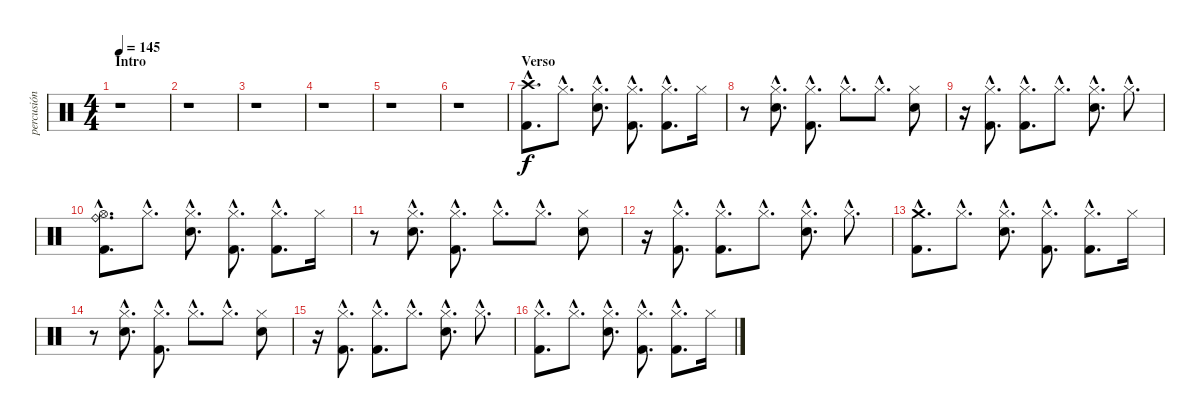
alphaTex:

\track ("percusión" "percusión") {instrument percussion}
\staff {score}
\articulation defaults
\ts (4 4)
\section ("" "Intro")
\tempo 145
\clef neutral
\ks c
r.1{dy f} |
r.1 |
r.1 |
r.1 |
r.1 |
r.1 |
\section ("" "Verso")
("Kick (hit) 2"{hac} "Crash high (hit)"{hac}).8{d} "Hi-Hat (closed)"{hac}.8{d} ("Hi-Hat (closed)"{hac} "Electric Snare (hit)"{hac}).8{d} ("Kick (hit) 2"{hac} "Hi-Hat (closed)"{hac}).8{d} ("Kick (hit) 2"{hac} "Hi-Hat (closed)"{hac}).8{d} "Hi-Hat (closed)".16 |
r.8 ("Hi-Hat (closed)"{hac} "Electric Snare (hit)"{hac}).8{d} ("Kick (hit) 2"{hac} "Hi-Hat (closed)"{hac}).8{d} "Hi-Hat (closed)"{hac}.8{d} "Hi-Hat (closed)"{hac}.8{d} ("Hi-Hat (closed)" "Electric Snare (hit)").8 |
r.16 ("Kick (hit) 2"{hac} "Hi-Hat (closed)"{hac}).8{d} ("Kick (hit) 2"{hac} "Hi-Hat (closed)"{hac}).8{d} "Hi-Hat (closed)"{hac}.8{d} ("Hi-Hat (closed)"{hac} "Electric Snare (hit)"{hac}).8{d} "Hi-Hat (closed)"{hac}.8{d} |
("Kick (hit) 2"{hac} "Hi-Hat (open)"{hac} "Ride (bell)"{hac}).8{d} "Hi-Hat (closed)"{hac}.8{d} ("Hi-Hat (closed)"{hac} "Electric Snare (hit)"{hac}).8{d} ("Kick (hit) 2"{hac} "Hi-Hat (closed)"{hac}).8{d} ("Kick (hit) 2"{hac} "Hi-Hat (closed)"{hac}).8{d} "Hi-Hat (closed)".16 |
r.8 ("Hi-Hat (closed)"{hac} "Electric Snare (hit)"{hac}).8{d} ("Kick (hit) 2"{hac} "Hi-Hat (closed)"{hac}).8{d} "Hi-Hat (closed)"{hac}.8{d} "Hi-Hat (closed)"{hac}.8{d} ("Hi-Hat (closed)" "Electric Snare (hit)").8 |
r.16 ("Kick (hit) 2"{hac} "Hi-Hat (closed)"{hac}).8{d} ("Kick (hit) 2"{hac} "Hi-Hat (closed)"{hac}).8{d} "Hi-Hat (closed)"{hac}.8{d} ("Hi-Hat (closed)"{hac} "Electric Snare (hit)"{hac}).8{d} "Hi-Hat (closed)"{hac}.8{d} |
("Kick (hit) 2"{hac} "Crash medium (hit)"{hac}).8{d} "Hi-Hat (closed)"{hac}.8{d} ("Hi-Hat (closed)"{hac} "Electric Snare (hit)"{hac}).8{d} ("Kick (hit) 2"{hac} "Hi-Hat (closed)"{hac}).8{d} ("Kick (hit) 2"{hac} "Hi-Hat (closed)"{hac}).8{d} "Hi-Hat (closed)".16 |
r.8 ("Hi-Hat (closed)"{hac} "Electric Snare (hit)"{hac}).8{d} ("Kick (hit) 2"{hac} "Hi-Hat (closed)"{hac}).8{d} "Hi-Hat (closed)"{hac}.8{d} "Hi-Hat (closed)"{hac}.8{d} ("Hi-Hat (closed)" "Electric Snare (hit)").8 |
r.16 ("Kick (hit) 2"{hac} "Hi-Hat (closed)"{hac}).8{d} ("Kick (hit) 2"{hac} "Hi-Hat (closed)"{hac}).8{d} "Hi-Hat (closed)"{hac}.8{d} ("Hi-Hat (closed)"{hac} "Electric Snare (hit)"{hac}).8{d} "Hi-Hat (closed)"{hac}.8{d} |
("Kick (hit) 2"{hac} "Hi-Hat (closed)"{hac}).8{d} "Hi-Hat (closed)"{hac}.8{d} ("Hi-Hat (closed)"{hac} "Electric Snare (hit)"{hac}).8{d} ("Kick (hit) 2"{hac} "Hi-Hat (closed)"{hac}).8{d} ("Kick (hit) 2"{hac} "Hi-Hat (closed)"{hac}).8{d} "Hi-Hat (closed)".16
